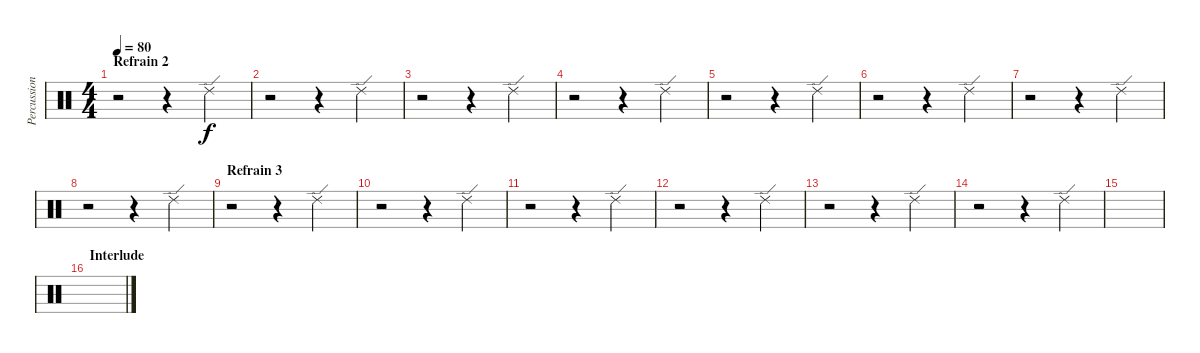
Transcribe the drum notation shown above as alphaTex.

\track ("Percussions" "Percussion") {instrument percussion}
\staff {score}
\articulation defaults
\ts (4 4)
\section ("" "Refrain 2")
\tempo 80
\clef neutral
\ks c
r.2{dy f} r.4 "Ride (edge) 2".4 |
r.2 r.4 "Ride (edge) 2".4 |
r.2 r.4 "Ride (edge) 2".4 |
r.2 r.4 "Ride (edge) 2".4 |
r.2 r.4 "Ride (edge) 2".4 |
r.2 r.4 "Ride (edge) 2".4 |
r.2 r.4 "Ride (edge) 2".4 |
r.2 r.4 "Ride (edge) 2".4 |
\section ("" "Refrain 3")
r.2 r.4 "Ride (edge) 2".4 |
r.2 r.4 "Ride (edge) 2".4 |
r.2 r.4 "Ride (edge) 2".4 |
r.2 r.4 "Ride (edge) 2".4 |
r.2 r.4 "Ride (edge) 2".4 |
r.2 r.4 "Ride (edge) 2".4 |
|
\section ("" "Interlude")
